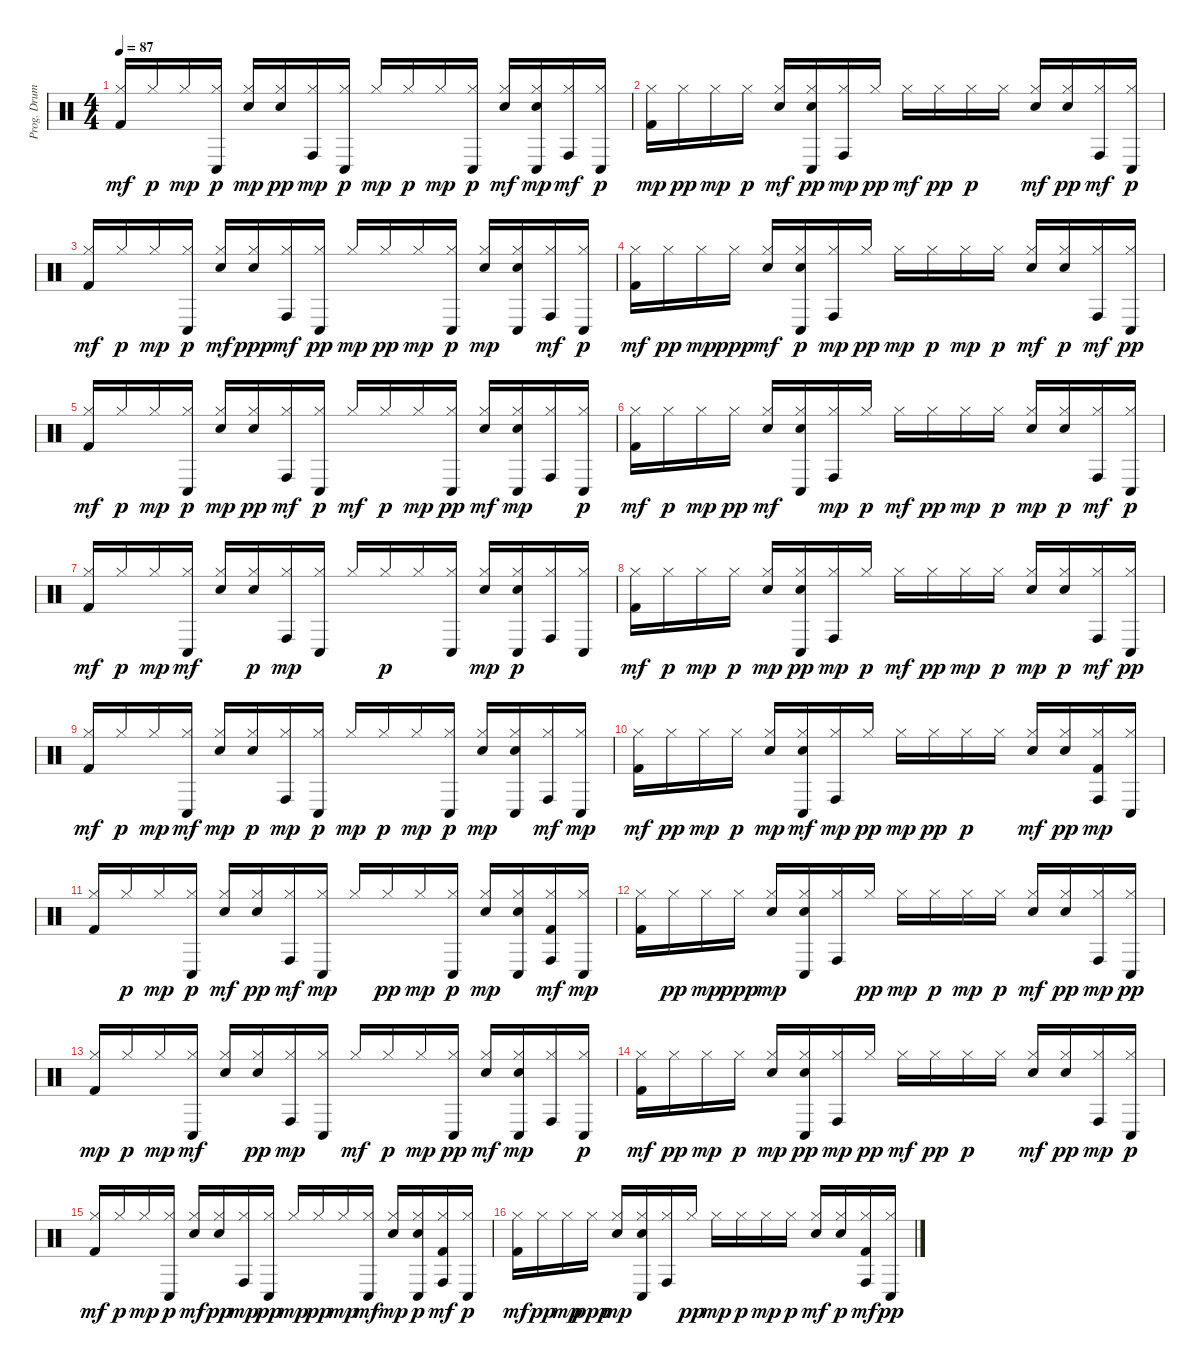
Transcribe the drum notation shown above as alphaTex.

\track ("Prog. Drums" "Prog. Drum") {instrument percussion}
\staff {score}
\articulation defaults
\ts (4 4)
\tempo 87
\clef neutral
\ks c
("Kick (hit) 2" "Hi-Hat (closed)").16{dy mf} "Hi-Hat (closed)".16{dy p} "Hi-Hat (closed)".16{dy mp} ("Conga low (hit)" "Hi-Hat (closed)").16{dy p} ("Snare (hit) 2" "Hi-Hat (closed)").16{dy mp} ("Hi-Hat (closed)" "Snare (hit) 2").16{dy pp} ("Conga high (hit)" "Hi-Hat (closed)").16{dy mp} ("Conga low (hit)" "Hi-Hat (closed)").16{dy p} "Hi-Hat (closed)".16{dy mp} "Hi-Hat (closed)".16{dy p} "Hi-Hat (closed)".16{dy mp} ("Conga low (hit)" "Hi-Hat (closed)").16{dy p} ("Hi-Hat (closed)" "Snare (hit) 2").16{dy mf} ("Snare (hit) 2" "Hi-Hat (closed)" "Conga low (hit)").16{dy mp} ("Hi-Hat (closed)" "Conga high (hit)").16{dy mf} ("Conga low (hit)" "Hi-Hat (closed)").16{dy p} |
("Kick (hit) 2" "Hi-Hat (closed)").16{dy mp} "Hi-Hat (closed)".16{dy pp} "Hi-Hat (closed)".16{dy mp} "Hi-Hat (closed)".16{dy p} ("Snare (hit) 2" "Hi-Hat (closed)").16{dy mf} ("Snare (hit) 2" "Conga low (hit)" "Hi-Hat (closed)").16{dy pp} ("Conga high (hit)" "Hi-Hat (closed)").16{dy mp} "Hi-Hat (closed)".16{dy pp} "Hi-Hat (closed)".16{dy mf} "Hi-Hat (closed)".16{dy pp} "Hi-Hat (closed)".16{dy p} "Hi-Hat (closed)".16 ("Snare (hit) 2" "Hi-Hat (closed)").16{dy mf} ("Snare (hit) 2" "Hi-Hat (closed)").16{dy pp} ("Hi-Hat (closed)" "Conga high (hit)").16{dy mf} ("Conga low (hit)" "Hi-Hat (closed)").16{dy p} |
("Hi-Hat (closed)" "Kick (hit) 2").16{dy mf} "Hi-Hat (closed)".16{dy p} "Hi-Hat (closed)".16{dy mp} ("Conga low (hit)" "Hi-Hat (closed)").16{dy p} ("Snare (hit) 2" "Hi-Hat (closed)").16{dy mf} ("Snare (hit) 2" "Hi-Hat (closed)").16{dy ppp} ("Hi-Hat (closed)" "Conga high (hit)").16{dy mf} ("Conga low (hit)" "Hi-Hat (closed)").16{dy pp} "Hi-Hat (closed)".16{dy mp} "Hi-Hat (closed)".16{dy pp} "Hi-Hat (closed)".16{dy mp} ("Conga low (hit)" "Hi-Hat (closed)").16{dy p} ("Snare (hit) 2" "Hi-Hat (closed)").16{dy mp} ("Snare (hit) 2" "Hi-Hat (closed)" "Conga low (hit)").16 ("Hi-Hat (closed)" "Conga high (hit)").16{dy mf} ("Conga low (hit)" "Hi-Hat (closed)").16{dy p} |
("Hi-Hat (closed)" "Kick (hit) 2").16{dy mf} "Hi-Hat (closed)".16{dy pp} "Hi-Hat (closed)".16{dy mp} "Hi-Hat (closed)".16{dy ppp} ("Hi-Hat (closed)" "Snare (hit) 2").16{dy mf} ("Snare (hit) 2" "Conga low (hit)" "Hi-Hat (closed)").16{dy p} ("Conga high (hit)" "Hi-Hat (closed)").16{dy mp} "Hi-Hat (closed)".16{dy pp} "Hi-Hat (closed)".16{dy mp} "Hi-Hat (closed)".16{dy p} "Hi-Hat (closed)".16{dy mp} "Hi-Hat (closed)".16{dy p} ("Snare (hit) 2" "Hi-Hat (closed)").16{dy mf} ("Snare (hit) 2" "Hi-Hat (closed)").16{dy p} ("Hi-Hat (closed)" "Conga high (hit)").16{dy mf} ("Conga low (hit)" "Hi-Hat (closed)").16{dy pp} |
("Hi-Hat (closed)" "Kick (hit) 2").16{dy mf} "Hi-Hat (closed)".16{dy p} "Hi-Hat (closed)".16{dy mp} ("Conga low (hit)" "Hi-Hat (closed)").16{dy p} ("Hi-Hat (closed)" "Snare (hit) 2").16{dy mp} ("Hi-Hat (closed)" "Snare (hit) 2").16{dy pp} ("Hi-Hat (closed)" "Conga high (hit)").16{dy mf} ("Conga low (hit)" "Hi-Hat (closed)").16{dy p} "Hi-Hat (closed)".16{dy mf} "Hi-Hat (closed)".16{dy p} "Hi-Hat (closed)".16{dy mp} ("Conga low (hit)" "Hi-Hat (closed)").16{dy pp} ("Snare (hit) 2" "Hi-Hat (closed)").16{dy mf} ("Snare (hit) 2" "Hi-Hat (closed)" "Conga low (hit)").16{dy mp} ("Conga high (hit)" "Hi-Hat (closed)").16 ("Conga low (hit)" "Hi-Hat (closed)").16{dy p} |
("Hi-Hat (closed)" "Kick (hit) 2").16{dy mf} "Hi-Hat (closed)".16{dy p} "Hi-Hat (closed)".16{dy mp} "Hi-Hat (closed)".16{dy pp} ("Hi-Hat (closed)" "Snare (hit) 2").16{dy mf} ("Hi-Hat (closed)" "Snare (hit) 2" "Conga low (hit)").16 ("Conga high (hit)" "Hi-Hat (closed)").16{dy mp} "Hi-Hat (closed)".16{dy p} "Hi-Hat (closed)".16{dy mf} "Hi-Hat (closed)".16{dy pp} "Hi-Hat (closed)".16{dy mp} "Hi-Hat (closed)".16{dy p} ("Snare (hit) 2" "Hi-Hat (closed)").16{dy mp} ("Snare (hit) 2" "Hi-Hat (closed)").16{dy p} ("Hi-Hat (closed)" "Conga high (hit)").16{dy mf} ("Conga low (hit)" "Hi-Hat (closed)").16{dy p} |
("Hi-Hat (closed)" "Kick (hit) 2").16{dy mf} "Hi-Hat (closed)".16{dy p} "Hi-Hat (closed)".16{dy mp} ("Hi-Hat (closed)" "Conga low (hit)").16{dy mf} ("Snare (hit) 2" "Hi-Hat (closed)").16 ("Snare (hit) 2" "Hi-Hat (closed)").16{dy p} ("Conga high (hit)" "Hi-Hat (closed)").16{dy mp} ("Hi-Hat (closed)" "Conga low (hit)").16 "Hi-Hat (closed)".16 "Hi-Hat (closed)".16{dy p} "Hi-Hat (closed)".16 ("Conga low (hit)" "Hi-Hat (closed)").16 ("Hi-Hat (closed)" "Snare (hit) 2").16{dy mp} ("Snare (hit) 2" "Conga low (hit)" "Hi-Hat (closed)").16{dy p} ("Conga high (hit)" "Hi-Hat (closed)").16 ("Conga low (hit)" "Hi-Hat (closed)").16 |
("Kick (hit) 2" "Hi-Hat (closed)").16{dy mf} "Hi-Hat (closed)".16{dy p} "Hi-Hat (closed)".16{dy mp} "Hi-Hat (closed)".16{dy p} ("Snare (hit) 2" "Hi-Hat (closed)").16{dy mp} ("Snare (hit) 2" "Conga low (hit)" "Hi-Hat (closed)").16{dy pp} ("Hi-Hat (closed)" "Conga high (hit)").16{dy mp} "Hi-Hat (closed)".16{dy p} "Hi-Hat (closed)".16{dy mf} "Hi-Hat (closed)".16{dy pp} "Hi-Hat (closed)".16{dy mp} "Hi-Hat (closed)".16{dy p} ("Hi-Hat (closed)" "Snare (hit) 2").16{dy mp} ("Snare (hit) 2" "Hi-Hat (closed)").16{dy p} ("Hi-Hat (closed)" "Conga high (hit)").16{dy mf} ("Conga low (hit)" "Hi-Hat (closed)").16{dy pp} |
("Hi-Hat (closed)" "Kick (hit) 2").16{dy mf} "Hi-Hat (closed)".16{dy p} "Hi-Hat (closed)".16{dy mp} ("Hi-Hat (closed)" "Conga low (hit)").16{dy mf} ("Hi-Hat (closed)" "Snare (hit) 2").16{dy mp} ("Snare (hit) 2" "Hi-Hat (closed)").16{dy p} ("Conga high (hit)" "Hi-Hat (closed)").16{dy mp} ("Conga low (hit)" "Hi-Hat (closed)").16{dy p} "Hi-Hat (closed)".16{dy mp} "Hi-Hat (closed)".16{dy p} "Hi-Hat (closed)".16{dy mp} ("Conga low (hit)" "Hi-Hat (closed)").16{dy p} ("Snare (hit) 2" "Hi-Hat (closed)").16{dy mp} ("Snare (hit) 2" "Hi-Hat (closed)" "Conga low (hit)").16 ("Hi-Hat (closed)" "Conga high (hit)").16{dy mf} ("Hi-Hat (closed)" "Conga low (hit)").16{dy mp} |
("Hi-Hat (closed)" "Kick (hit) 2").16{dy mf} "Hi-Hat (closed)".16{dy pp} "Hi-Hat (closed)".16{dy mp} "Hi-Hat (closed)".16{dy p} ("Hi-Hat (closed)" "Snare (hit) 2").16{dy mp} ("Snare (hit) 2" "Hi-Hat (closed)" "Conga low (hit)").16{dy mf} ("Conga high (hit)" "Hi-Hat (closed)").16{dy mp} "Hi-Hat (closed)".16{dy pp} "Hi-Hat (closed)".16{dy mp} "Hi-Hat (closed)".16{dy pp} "Hi-Hat (closed)".16{dy p} "Hi-Hat (closed)".16 ("Snare (hit) 2" "Hi-Hat (closed)").16{dy mf} ("Hi-Hat (closed)" "Snare (hit) 2").16{dy pp} ("Kick (hit) 2" "Conga high (hit)" "Hi-Hat (closed)").16{dy mp} ("Hi-Hat (closed)" "Conga low (hit)").16 |
("Kick (hit) 2" "Hi-Hat (closed)").16 "Hi-Hat (closed)".16{dy p} "Hi-Hat (closed)".16{dy mp} ("Conga low (hit)" "Hi-Hat (closed)").16{dy p} ("Snare (hit) 2" "Hi-Hat (closed)").16{dy mf} ("Snare (hit) 2" "Hi-Hat (closed)").16{dy pp} ("Conga high (hit)" "Hi-Hat (closed)").16{dy mf} ("Hi-Hat (closed)" "Conga low (hit)").16{dy mp} "Hi-Hat (closed)".16 "Hi-Hat (closed)".16{dy pp} "Hi-Hat (closed)".16{dy mp} ("Conga low (hit)" "Hi-Hat (closed)").16{dy p} ("Snare (hit) 2" "Hi-Hat (closed)").16{dy mp} ("Snare (hit) 2" "Hi-Hat (closed)" "Conga low (hit)").16 ("Kick (hit) 2" "Hi-Hat (closed)" "Conga high (hit)").16{dy mf} ("Hi-Hat (closed)" "Conga low (hit)").16{dy mp} |
("Kick (hit) 2" "Hi-Hat (closed)").16 "Hi-Hat (closed)".16{dy pp} "Hi-Hat (closed)".16{dy mp} "Hi-Hat (closed)".16{dy ppp} ("Snare (hit) 2" "Hi-Hat (closed)").16{dy mp} ("Snare (hit) 2" "Hi-Hat (closed)" "Conga low (hit)").16 ("Conga high (hit)" "Hi-Hat (closed)").16 "Hi-Hat (closed)".16{dy pp} "Hi-Hat (closed)".16{dy mp} "Hi-Hat (closed)".16{dy p} "Hi-Hat (closed)".16{dy mp} "Hi-Hat (closed)".16{dy p} ("Hi-Hat (closed)" "Snare (hit) 2").16{dy mf} ("Hi-Hat (closed)" "Snare (hit) 2").16{dy pp} ("Conga high (hit)" "Hi-Hat (closed)").16{dy mp} ("Conga low (hit)" "Hi-Hat (closed)").16{dy pp} |
("Kick (hit) 2" "Hi-Hat (closed)").16{dy mp} "Hi-Hat (closed)".16{dy p} "Hi-Hat (closed)".16{dy mp} ("Hi-Hat (closed)" "Conga low (hit)").16{dy mf} ("Snare (hit) 2" "Hi-Hat (closed)").16 ("Hi-Hat (closed)" "Snare (hit) 2").16{dy pp} ("Conga high (hit)" "Hi-Hat (closed)").16{dy mp} ("Hi-Hat (closed)" "Conga low (hit)").16 "Hi-Hat (closed)".16{dy mf} "Hi-Hat (closed)".16{dy p} "Hi-Hat (closed)".16{dy mp} ("Conga low (hit)" "Hi-Hat (closed)").16{dy pp} ("Hi-Hat (closed)" "Snare (hit) 2").16{dy mf} ("Snare (hit) 2" "Hi-Hat (closed)" "Conga low (hit)").16{dy mp} ("Conga high (hit)" "Hi-Hat (closed)").16 ("Conga low (hit)" "Hi-Hat (closed)").16{dy p} |
("Hi-Hat (closed)" "Kick (hit) 2").16{dy mf} "Hi-Hat (closed)".16{dy pp} "Hi-Hat (closed)".16{dy mp} "Hi-Hat (closed)".16{dy p} ("Snare (hit) 2" "Hi-Hat (closed)").16{dy mp} ("Conga low (hit)" "Snare (hit) 2" "Hi-Hat (closed)").16{dy pp} ("Conga high (hit)" "Hi-Hat (closed)").16{dy mp} "Hi-Hat (closed)".16{dy pp} "Hi-Hat (closed)".16{dy mf} "Hi-Hat (closed)".16{dy pp} "Hi-Hat (closed)".16{dy p} "Hi-Hat (closed)".16 ("Hi-Hat (closed)" "Snare (hit) 2").16{dy mf} ("Snare (hit) 2" "Hi-Hat (closed)").16{dy pp} ("Conga high (hit)" "Hi-Hat (closed)").16{dy mp} ("Conga low (hit)" "Hi-Hat (closed)").16{dy p} |
("Hi-Hat (closed)" "Kick (hit) 2").16{dy mf} "Hi-Hat (closed)".16{dy p} "Hi-Hat (closed)".16{dy mp} ("Conga low (hit)" "Hi-Hat (closed)").16{dy p} ("Hi-Hat (closed)" "Snare (hit) 2").16{dy mf} ("Snare (hit) 2" "Hi-Hat (closed)").16{dy pp} ("Conga high (hit)" "Hi-Hat (closed)").16{dy mp} ("Conga low (hit)" "Hi-Hat (closed)").16{dy pp} "Hi-Hat (closed)".16{dy mp} "Hi-Hat (closed)".16{dy pp} "Hi-Hat (closed)".16{dy mp} ("Hi-Hat (closed)" "Conga low (hit)").16{dy mf} ("Snare (hit) 2" "Hi-Hat (closed)").16{dy mp} ("Snare (hit) 2" "Conga low (hit)" "Hi-Hat (closed)").16{dy p} ("Hi-Hat (closed)" "Kick (hit) 2" "Conga high (hit)").16{dy mf} ("Conga low (hit)" "Hi-Hat (closed)").16{dy p} |
("Hi-Hat (closed)" "Kick (hit) 2").16{dy mf} "Hi-Hat (closed)".16{dy pp} "Hi-Hat (closed)".16{dy mp} "Hi-Hat (closed)".16{dy ppp} ("Snare (hit) 2" "Hi-Hat (closed)").16{dy mp} ("Hi-Hat (closed)" "Snare (hit) 2" "Conga low (hit)").16 ("Conga high (hit)" "Hi-Hat (closed)").16 "Hi-Hat (closed)".16{dy pp} "Hi-Hat (closed)".16{dy mp} "Hi-Hat (closed)".16{dy p} "Hi-Hat (closed)".16{dy mp} "Hi-Hat (closed)".16{dy p} ("Snare (hit) 2" "Hi-Hat (closed)").16{dy mf} ("Snare (hit) 2" "Hi-Hat (closed)").16{dy p} ("Kick (hit) 2" "Hi-Hat (closed)" "Conga high (hit)").16{dy mf} ("Conga low (hit)" "Hi-Hat (closed)").16{dy pp}
